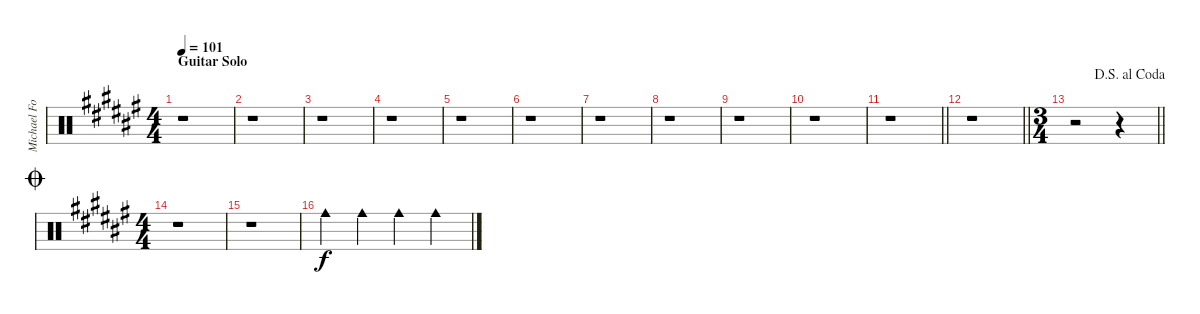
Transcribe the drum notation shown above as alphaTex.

\track ("Michael Foster" "Michael Fo") {instrument percussion}
\staff {score}
\articulation defaults
\ts (4 4)
\section ("" "Guitar Solo")
\tempo 101
\clef neutral
\ks f#
r.1{dy f} |
r.1 |
r.1 |
r.1 |
r.1 |
r.1 |
r.1 |
r.1 |
r.1 |
r.1 |
\barLineRight lightlight
r.1 |
\barLineRight lightlight
r.1 |
\ts (3 4)
\jump dalsegnoalcoda
\barLineRight lightlight
r.2 r.4 |
\ts (4 4)
\jump coda
r.1 |
r.1 |
"Cowbell medium (hit)".4 "Cowbell medium (hit)".4 "Cowbell medium (hit)".4 "Cowbell medium (hit)".4
